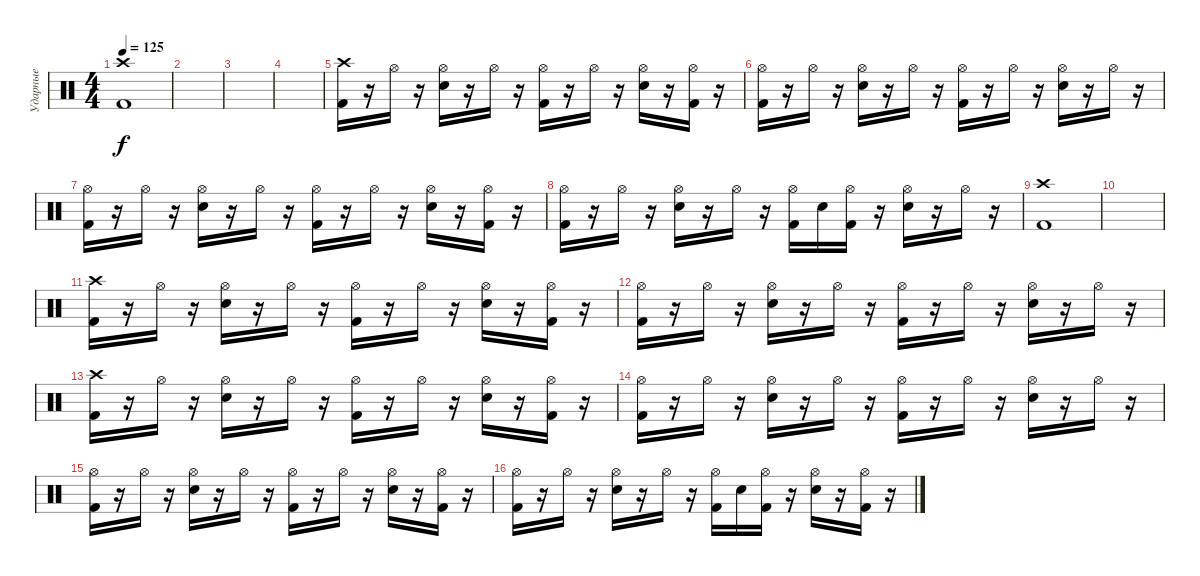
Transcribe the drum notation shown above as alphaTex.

\track ("Ударные" "Ударные") {instrument percussion}
\staff {score}
\articulation defaults
\ts (4 4)
\tempo 125
\clef neutral
\ks c
("Crash high (hit)" "Kick (hit) 2").1{dy f} |
|
|
|
("Crash high (hit)" "Kick (hit) 2").16 r.16 "Hi-Hat (open)".16 r.16 ("Hi-Hat (open)" "Electric Snare (hit)").16 r.16 "Hi-Hat (open)".16 r.16 ("Hi-Hat (open)" "Kick (hit) 2").16 r.16 "Hi-Hat (open)".16 r.16 ("Hi-Hat (open)" "Electric Snare (hit)").16 r.16 ("Hi-Hat (open)" "Kick (hit) 2").16 r.16 |
("Hi-Hat (open)" "Kick (hit) 2").16 r.16 "Hi-Hat (open)".16 r.16 ("Hi-Hat (open)" "Electric Snare (hit)").16 r.16 "Hi-Hat (open)".16 r.16 ("Hi-Hat (open)" "Kick (hit) 2").16 r.16 "Hi-Hat (open)".16 r.16 ("Hi-Hat (open)" "Electric Snare (hit)").16 r.16 "Hi-Hat (open)".16 r.16 |
("Hi-Hat (open)" "Kick (hit) 2").16 r.16 "Hi-Hat (open)".16 r.16 ("Hi-Hat (open)" "Electric Snare (hit)").16 r.16 "Hi-Hat (open)".16 r.16 ("Hi-Hat (open)" "Kick (hit) 2").16 r.16 "Hi-Hat (open)".16 r.16 ("Hi-Hat (open)" "Electric Snare (hit)").16 r.16 ("Hi-Hat (open)" "Kick (hit) 2").16 r.16 |
("Hi-Hat (open)" "Kick (hit) 2").16 r.16 "Hi-Hat (open)".16 r.16 ("Hi-Hat (open)" "Electric Snare (hit)").16 r.16 "Hi-Hat (open)".16 r.16 ("Hi-Hat (open)" "Kick (hit) 2").16 "Electric Snare (hit)".16 ("Hi-Hat (open)" "Kick (hit) 2").16 r.16 ("Hi-Hat (open)" "Electric Snare (hit)").16 r.16 "Hi-Hat (open)".16 r.16 |
("Crash high (hit)" "Kick (hit) 2").1 |
|
("Crash high (hit)" "Kick (hit) 2").16 r.16 "Hi-Hat (open)".16 r.16 ("Hi-Hat (open)" "Electric Snare (hit)").16 r.16 "Hi-Hat (open)".16 r.16 ("Hi-Hat (open)" "Kick (hit) 2").16 r.16 "Hi-Hat (open)".16 r.16 ("Hi-Hat (open)" "Electric Snare (hit)").16 r.16 ("Hi-Hat (open)" "Kick (hit) 2").16 r.16 |
("Hi-Hat (open)" "Kick (hit) 2").16 r.16 "Hi-Hat (open)".16 r.16 ("Hi-Hat (open)" "Electric Snare (hit)").16 r.16 "Hi-Hat (open)".16 r.16 ("Hi-Hat (open)" "Kick (hit) 2").16 r.16 "Hi-Hat (open)".16 r.16 ("Hi-Hat (open)" "Electric Snare (hit)").16 r.16 "Hi-Hat (open)".16 r.16 |
("Crash high (hit)" "Kick (hit) 2").16 r.16 "Hi-Hat (open)".16 r.16 ("Hi-Hat (open)" "Electric Snare (hit)").16 r.16 "Hi-Hat (open)".16 r.16 ("Hi-Hat (open)" "Kick (hit) 2").16 r.16 "Hi-Hat (open)".16 r.16 ("Hi-Hat (open)" "Electric Snare (hit)").16 r.16 ("Hi-Hat (open)" "Kick (hit) 2").16 r.16 |
("Hi-Hat (open)" "Kick (hit) 2").16 r.16 "Hi-Hat (open)".16 r.16 ("Hi-Hat (open)" "Electric Snare (hit)").16 r.16 "Hi-Hat (open)".16 r.16 ("Hi-Hat (open)" "Kick (hit) 2").16 r.16 "Hi-Hat (open)".16 r.16 ("Hi-Hat (open)" "Electric Snare (hit)").16 r.16 "Hi-Hat (open)".16 r.16 |
("Hi-Hat (open)" "Kick (hit) 2").16 r.16 "Hi-Hat (open)".16 r.16 ("Hi-Hat (open)" "Electric Snare (hit)").16 r.16 "Hi-Hat (open)".16 r.16 ("Hi-Hat (open)" "Kick (hit) 2").16 r.16 "Hi-Hat (open)".16 r.16 ("Hi-Hat (open)" "Electric Snare (hit)").16 r.16 ("Hi-Hat (open)" "Kick (hit) 2").16 r.16 |
("Hi-Hat (open)" "Kick (hit) 2").16 r.16 "Hi-Hat (open)".16 r.16 ("Hi-Hat (open)" "Electric Snare (hit)").16 r.16 "Hi-Hat (open)".16 r.16 ("Hi-Hat (open)" "Kick (hit) 2").16 "Electric Snare (hit)".16 ("Hi-Hat (open)" "Kick (hit) 2").16 r.16 ("Hi-Hat (open)" "Electric Snare (hit)").16 r.16 ("Hi-Hat (open)" "Kick (hit) 2").16 r.16
